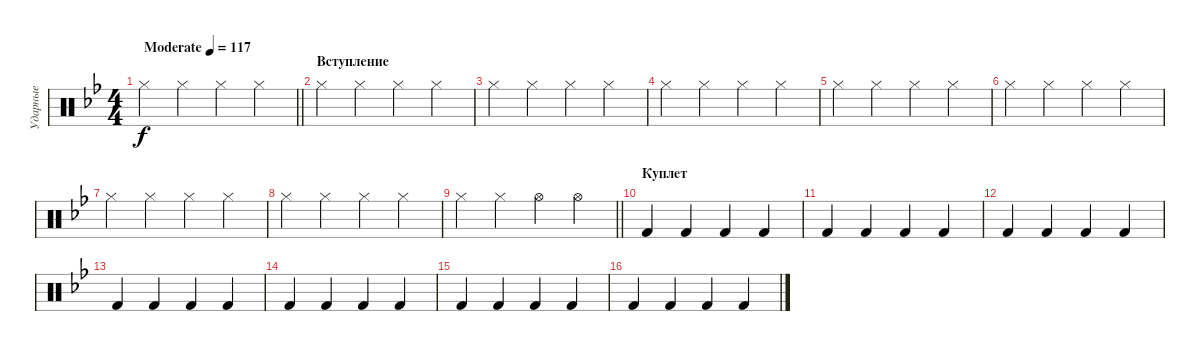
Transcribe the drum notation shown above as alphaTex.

\track ("Ударные" "Ударные") {instrument percussion}
\staff {score}
\articulation defaults
\ts (4 4)
\tempo (117 "Moderate")
\clef neutral
\barLineRight lightlight
\ks gminor "Hi-Hat (closed)".4{dy f} "Hi-Hat (closed)".4 "Hi-Hat (closed)".4 "Hi-Hat (closed)".4
|
\section ("" "Вступление")
"Hi-Hat (closed)".4 "Hi-Hat (closed)".4 "Hi-Hat (closed)".4 "Hi-Hat (closed)".4 |
"Hi-Hat (closed)".4 "Hi-Hat (closed)".4 "Hi-Hat (closed)".4 "Hi-Hat (closed)".4 |
"Hi-Hat (closed)".4 "Hi-Hat (closed)".4 "Hi-Hat (closed)".4 "Hi-Hat (closed)".4 |
"Hi-Hat (closed)".4 "Hi-Hat (closed)".4 "Hi-Hat (closed)".4 "Hi-Hat (closed)".4 |
"Hi-Hat (closed)".4 "Hi-Hat (closed)".4 "Hi-Hat (closed)".4 "Hi-Hat (closed)".4 |
"Hi-Hat (closed)".4 "Hi-Hat (closed)".4 "Hi-Hat (closed)".4 "Hi-Hat (closed)".4 |
"Hi-Hat (closed)".4 "Hi-Hat (closed)".4 "Hi-Hat (closed)".4 "Hi-Hat (closed)".4 |
\barLineRight lightlight "Hi-Hat (closed)".4 "Hi-Hat (closed)".4 "Hi-Hat (open)".4 "Hi-Hat (open)".4
|
\section ("" "Куплет")
"Kick (hit) 2".4 "Kick (hit) 2".4 "Kick (hit) 2".4 "Kick (hit) 2".4 |
"Kick (hit) 2".4 "Kick (hit) 2".4 "Kick (hit) 2".4 "Kick (hit) 2".4 |
"Kick (hit) 2".4 "Kick (hit) 2".4 "Kick (hit) 2".4 "Kick (hit) 2".4 |
"Kick (hit) 2".4 "Kick (hit) 2".4 "Kick (hit) 2".4 "Kick (hit) 2".4 |
"Kick (hit) 2".4 "Kick (hit) 2".4 "Kick (hit) 2".4 "Kick (hit) 2".4 |
"Kick (hit) 2".4 "Kick (hit) 2".4 "Kick (hit) 2".4 "Kick (hit) 2".4 |
"Kick (hit) 2".4 "Kick (hit) 2".4 "Kick (hit) 2".4 "Kick (hit) 2".4
